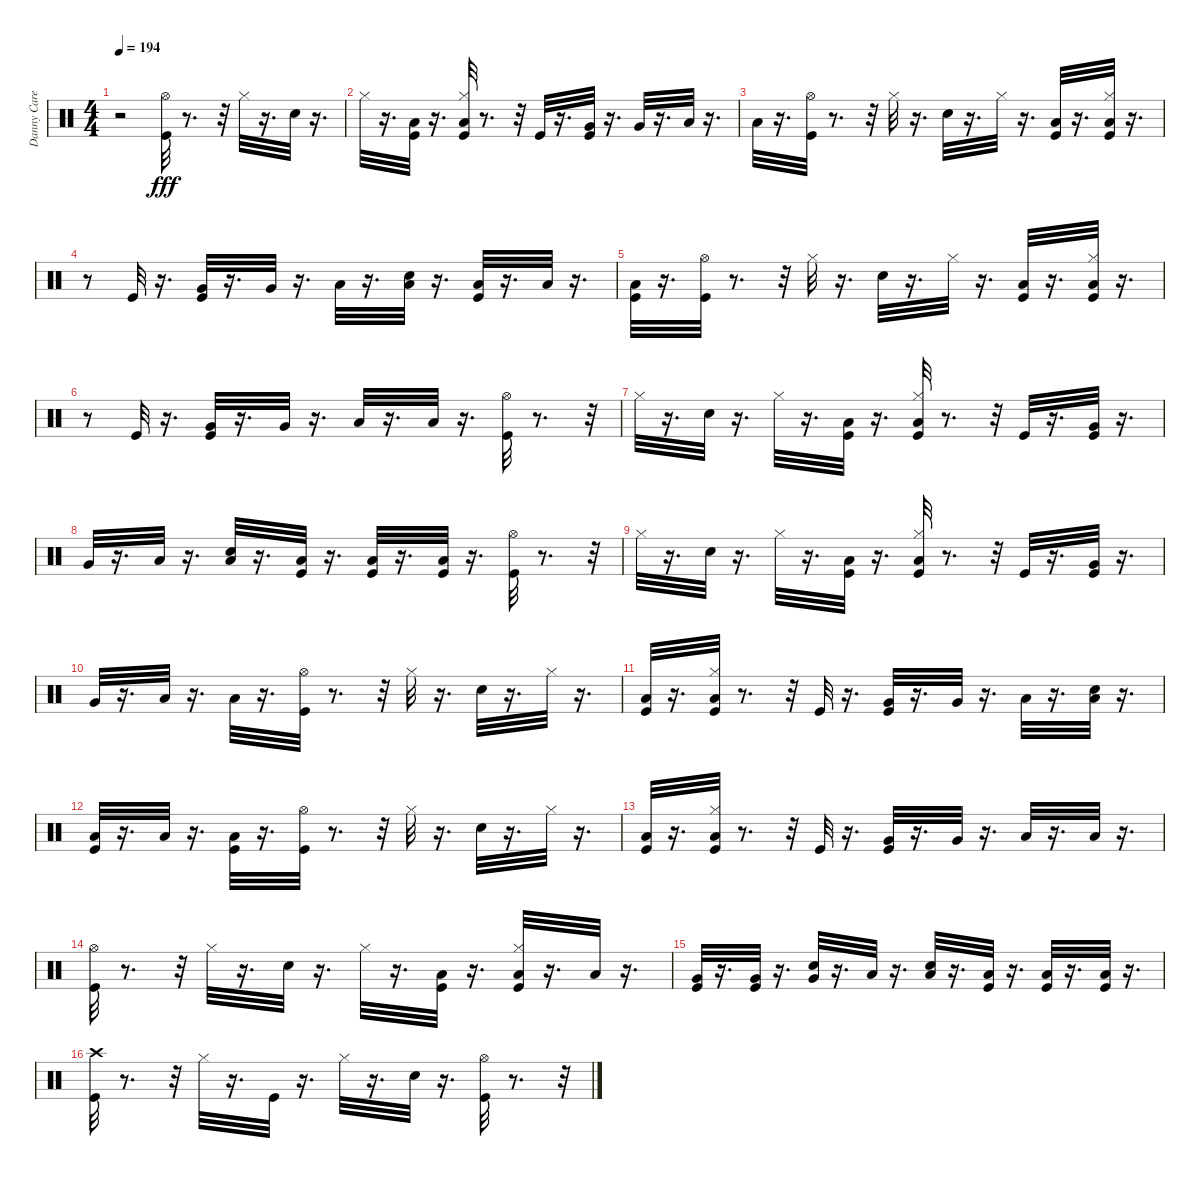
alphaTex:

\track ("Danny Carey" "Danny Care") {instrument percussion}
\staff {score}
\articulation defaults
\ts (4 4)
\tempo 194
\clef neutral
\ks c
r.2{dy fff} ("Hi-Hat (open)" "Kick (hit)").32 r.8{d} r.32 "Hi-Hat (closed)".32 r.16{d} "Snare (hit) 2".32 r.16{d} |
"Hi-Hat (closed)".32 r.16{d} ("Low Floor Tom (hit)" "Kick (hit)").32 r.16{d} ("Low Floor Tom (hit)" "Hi-Hat (closed)" "Kick (hit)").32 r.8{d} r.32 "Kick (hit)".32 r.16{d} ("Very Low Tom (hit)" "Kick (hit)").32 r.16{d} "Very Low Tom (hit)".32 r.16{d} "Low Floor Tom (hit)".32 r.16{d} |
"Low Floor Tom (hit)".32 r.16{d} ("Kick (hit)" "Hi-Hat (open)").32 r.8{d} r.32 "Hi-Hat (closed)".32 r.16{d} "Snare (hit) 2".32 r.16{d} "Hi-Hat (closed)".32 r.16{d} ("Kick (hit)" "Low Floor Tom (hit)").32 r.16{d} ("Kick (hit)" "Low Floor Tom (hit)" "Hi-Hat (closed)").32 r.16{d} |
r.8 "Kick (hit)".32 r.16{d} ("Very Low Tom (hit)" "Kick (hit)").32 r.16{d} "Very Low Tom (hit)".32 r.16{d} "Low Floor Tom (hit)".32 r.16{d} ("Snare (hit) 2" "Low Floor Tom (hit)").32 r.16{d} ("Kick (hit)" "Low Floor Tom (hit)").32 r.16{d} "Low Floor Tom (hit)".32 r.16{d} |
("Kick (hit)" "Low Floor Tom (hit)").32 r.16{d} ("Hi-Hat (open)" "Kick (hit)").32 r.8{d} r.32 "Hi-Hat (closed)".32 r.16{d} "Snare (hit) 2".32 r.16{d} "Hi-Hat (closed)".32 r.16{d} ("Low Floor Tom (hit)" "Kick (hit)").32 r.16{d} ("Low Floor Tom (hit)" "Hi-Hat (closed)" "Kick (hit)").32 r.16{d} |
r.8 "Kick (hit)".32 r.16{d} ("Very Low Tom (hit)" "Kick (hit)").32 r.16{d} "Very Low Tom (hit)".32 r.16{d} "Low Floor Tom (hit)".32 r.16{d} "Low Floor Tom (hit)".32 r.16{d} ("Hi-Hat (open)" "Kick (hit)").32 r.8{d} r.32 |
"Hi-Hat (closed)".32 r.16{d} "Snare (hit) 2".32 r.16{d} "Hi-Hat (closed)".32 r.16{d} ("Kick (hit)" "Low Floor Tom (hit)").32 r.16{d} ("Kick (hit)" "Low Floor Tom (hit)" "Hi-Hat (closed)").32 r.8{d} r.32 "Kick (hit)".32 r.16{d} ("Very Low Tom (hit)" "Kick (hit)").32 r.16{d} |
"Very Low Tom (hit)".32 r.16{d} "Low Floor Tom (hit)".32 r.16{d} ("Snare (hit) 2" "Low Floor Tom (hit)").32 r.16{d} ("Kick (hit)" "Low Floor Tom (hit)").32 r.16{d} ("Kick (hit)" "Low Floor Tom (hit)").32 r.16{d} ("Kick (hit)" "Low Floor Tom (hit)").32 r.16{d} ("Hi-Hat (open)" "Kick (hit)").32 r.8{d} r.32 |
"Hi-Hat (closed)".32 r.16{d} "Snare (hit) 2".32 r.16{d} "Hi-Hat (closed)".32 r.16{d} ("Low Floor Tom (hit)" "Kick (hit)").32 r.16{d} ("Low Floor Tom (hit)" "Hi-Hat (closed)" "Kick (hit)").32 r.8{d} r.32 "Kick (hit)".32 r.16{d} ("Very Low Tom (hit)" "Kick (hit)").32 r.16{d} |
"Very Low Tom (hit)".32 r.16{d} "Low Floor Tom (hit)".32 r.16{d} "Low Floor Tom (hit)".32 r.16{d} ("Hi-Hat (open)" "Kick (hit)").32 r.8{d} r.32 "Hi-Hat (closed)".32 r.16{d} "Snare (hit) 2".32 r.16{d} "Hi-Hat (closed)".32 r.16{d} |
("Kick (hit)" "Low Floor Tom (hit)").32 r.16{d} ("Kick (hit)" "Low Floor Tom (hit)" "Hi-Hat (closed)").32 r.8{d} r.32 "Kick (hit)".32 r.16{d} ("Very Low Tom (hit)" "Kick (hit)").32 r.16{d} "Very Low Tom (hit)".32 r.16{d} "Low Floor Tom (hit)".32 r.16{d} ("Snare (hit) 2" "Low Floor Tom (hit)").32 r.16{d} |
("Kick (hit)" "Low Floor Tom (hit)").32 r.16{d} "Low Floor Tom (hit)".32 r.16{d} ("Kick (hit)" "Low Floor Tom (hit)").32 r.16{d} ("Hi-Hat (open)" "Kick (hit)").32 r.8{d} r.32 "Hi-Hat (closed)".32 r.16{d} "Snare (hit) 2".32 r.16{d} "Hi-Hat (closed)".32 r.16{d} |
("Low Floor Tom (hit)" "Kick (hit)").32 r.16{d} ("Low Floor Tom (hit)" "Hi-Hat (closed)" "Kick (hit)").32 r.8{d} r.32 "Kick (hit)".32 r.16{d} ("Very Low Tom (hit)" "Kick (hit)").32 r.16{d} "Very Low Tom (hit)".32 r.16{d} "Low Floor Tom (hit)".32 r.16{d} "Low Floor Tom (hit)".32 r.16{d} |
("Hi-Hat (open)" "Kick (hit)").32 r.8{d} r.32 "Hi-Hat (closed)".32 r.16{d} "Snare (hit) 2".32 r.16{d} "Hi-Hat (closed)".32 r.16{d} ("Kick (hit)" "Low Floor Tom (hit)").32 r.16{d} ("Kick (hit)" "Low Floor Tom (hit)" "Hi-Hat (closed)").32 r.16{d} "Low Floor Tom (hit)".32 r.16{d} |
("Very Low Tom (hit)" "Kick (hit)").32 r.16{d} ("Very Low Tom (hit)" "Kick (hit)").32 r.16{d} ("Snare (hit) 2" "Very Low Tom (hit)").32 r.16{d} "Low Floor Tom (hit)".32 r.16{d} ("Snare (hit) 2" "Low Floor Tom (hit)").32 r.16{d} ("Kick (hit)" "Low Floor Tom (hit)").32 r.16{d} ("Kick (hit)" "Low Floor Tom (hit)").32 r.16{d} ("Kick (hit)" "Low Floor Tom (hit)").32 r.16{d} |
("Crash high (hit)" "Kick (hit)").32 r.8{d} r.32 "Hi-Hat (closed)".32 r.16{d} "Kick (hit)".32 r.16{d} "Hi-Hat (closed)".32 r.16{d} "Snare (hit) 2".32 r.16{d} ("Hi-Hat (open)" "Kick (hit)").32 r.8{d} r.32
